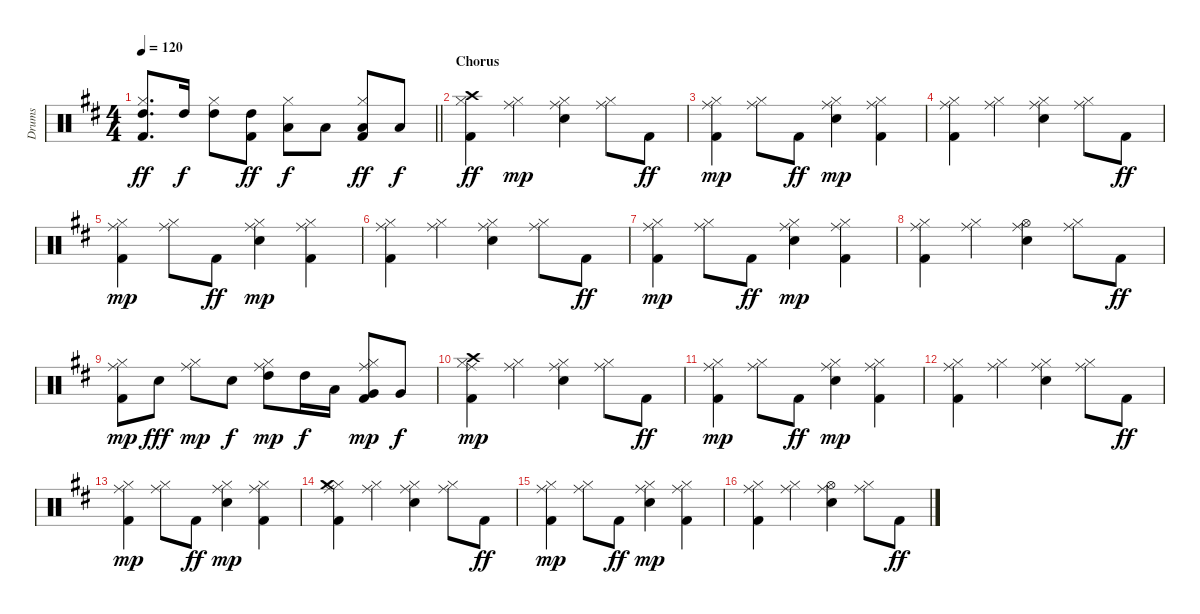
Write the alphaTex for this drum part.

\track ("Drums" "Drums") {instrument percussion}
\staff {score}
\articulation defaults
\ts (4 4)
\tempo 120
\clef neutral
\barLineRight lightlight
\ks d
("Kick (hit) 2" "Hi-Hat (closed)" "High Tom (hit)").8{d dy ff} "High Tom (hit)".16{dy f} ("Hi-Hat (closed)" "High Tom (hit)").8 ("Kick (hit) 2" "High Tom (hit)").8{dy ff} ("Hi-Hat (closed)" "Low Tom (hit)").8{dy f} "Low Tom (hit)".8 ("Kick (hit) 2" "Low Floor Tom (hit)" "Hi-Hat (closed)").8{dy ff} "Low Floor Tom (hit)".8{dy f} |
\section ("" "Chorus")
("Kick (hit) 2" "Hi-Hat (closed)" "Crash high (hit)").4{dy ff} ("Hi-Hat (closed)" "Ride (middle)").4{dy mp} ("Snare (hit) 2" "Hi-Hat (closed)" "Ride (middle)").4 ("Hi-Hat (closed)" "Ride (middle)").8 "Kick (hit) 2".8{dy ff} |
("Kick (hit) 2" "Hi-Hat (closed)" "Ride (middle)").4{dy mp} ("Hi-Hat (closed)" "Ride (middle)").8 "Kick (hit) 2".8{dy ff} ("Snare (hit) 2" "Hi-Hat (closed)" "Ride (middle)").4{dy mp} ("Kick (hit) 2" "Hi-Hat (closed)" "Ride (middle)").4 |
("Kick (hit) 2" "Hi-Hat (closed)" "Ride (middle)").4 ("Hi-Hat (closed)" "Ride (middle)").4 ("Snare (hit) 2" "Hi-Hat (closed)" "Ride (middle)").4 ("Hi-Hat (closed)" "Ride (middle)").8 "Kick (hit) 2".8{dy ff} |
("Kick (hit) 2" "Hi-Hat (closed)" "Ride (middle)").4{dy mp} ("Hi-Hat (closed)" "Ride (middle)").8 "Kick (hit) 2".8{dy ff} ("Snare (hit) 2" "Hi-Hat (closed)" "Ride (middle)").4{dy mp} ("Kick (hit) 2" "Hi-Hat (closed)" "Ride (middle)").4 |
("Kick (hit) 2" "Hi-Hat (closed)" "Ride (middle)").4 ("Hi-Hat (closed)" "Ride (middle)").4 ("Snare (hit) 2" "Hi-Hat (closed)" "Ride (middle)").4 ("Hi-Hat (closed)" "Ride (middle)").8 "Kick (hit) 2".8{dy ff} |
("Kick (hit) 2" "Hi-Hat (closed)" "Ride (middle)").4{dy mp} ("Hi-Hat (closed)" "Ride (middle)").8 "Kick (hit) 2".8{dy ff} ("Snare (hit) 2" "Hi-Hat (closed)" "Ride (middle)").4{dy mp} ("Kick (hit) 2" "Hi-Hat (closed)" "Ride (middle)").4 |
("Kick (hit) 2" "Hi-Hat (closed)" "Ride (middle)").4 ("Hi-Hat (closed)" "Ride (middle)").4 ("Snare (hit) 2" "Hi-Hat (open)" "Ride (middle)").4 ("Hi-Hat (closed)" "Ride (middle)").8 "Kick (hit) 2".8{dy ff} |
("Kick (hit) 2" "Hi-Hat (closed)" "Ride (middle)").8{dy mp} "Snare (hit) 2".8{dy fff} ("Hi-Hat (closed)" "Ride (middle)").8{dy mp} "Snare (hit) 2".8{dy f} ("Hi-Hat (closed)" "High Tom (hit)" "Ride (middle)").8{dy mp} "High Tom (hit)".16{dy f} "Low Tom (hit)".16 ("Kick (hit) 2" "Hi-Hat (closed)" "Very Low Tom (hit)" "Ride (middle)").8{dy mp} "Very Low Tom (hit)".8{dy f} |
("Kick (hit) 2" "Hi-Hat (closed)" "Crash high (hit)" "Ride (middle)").4{dy mp} ("Hi-Hat (closed)" "Ride (middle)").4 ("Snare (hit) 2" "Hi-Hat (closed)" "Ride (middle)").4 ("Hi-Hat (closed)" "Ride (middle)").8 "Kick (hit) 2".8{dy ff} |
("Kick (hit) 2" "Hi-Hat (closed)" "Ride (middle)").4{dy mp} ("Hi-Hat (closed)" "Ride (middle)").8 "Kick (hit) 2".8{dy ff} ("Snare (hit) 2" "Hi-Hat (closed)" "Ride (middle)").4{dy mp} ("Kick (hit) 2" "Hi-Hat (closed)" "Ride (middle)").4 |
("Kick (hit) 2" "Hi-Hat (closed)" "Ride (middle)").4 ("Hi-Hat (closed)" "Ride (middle)").4 ("Snare (hit) 2" "Hi-Hat (closed)" "Ride (middle)").4 ("Hi-Hat (closed)" "Ride (middle)").8 "Kick (hit) 2".8{dy ff} |
("Kick (hit) 2" "Hi-Hat (closed)" "Ride (middle)").4{dy mp} ("Hi-Hat (closed)" "Ride (middle)").8 "Kick (hit) 2".8{dy ff} ("Snare (hit) 2" "Hi-Hat (closed)" "Ride (middle)").4{dy mp} ("Kick (hit) 2" "Hi-Hat (closed)" "Ride (middle)").4 |
("Kick (hit) 2" "Hi-Hat (closed)" "Crash medium (hit)" "Ride (middle)").4 ("Hi-Hat (closed)" "Ride (middle)").4 ("Snare (hit) 2" "Hi-Hat (closed)" "Ride (middle)").4 ("Hi-Hat (closed)" "Ride (middle)").8 "Kick (hit) 2".8{dy ff} |
("Kick (hit) 2" "Hi-Hat (closed)" "Ride (middle)").4{dy mp} ("Hi-Hat (closed)" "Ride (middle)").8 "Kick (hit) 2".8{dy ff} ("Snare (hit) 2" "Hi-Hat (closed)" "Ride (middle)").4{dy mp} ("Kick (hit) 2" "Hi-Hat (closed)" "Ride (middle)").4 |
("Kick (hit) 2" "Hi-Hat (closed)" "Ride (middle)").4 ("Hi-Hat (closed)" "Ride (middle)").4 ("Snare (hit) 2" "Hi-Hat (open)" "Ride (middle)").4 ("Hi-Hat (closed)" "Ride (middle)").8 "Kick (hit) 2".8{dy ff}
